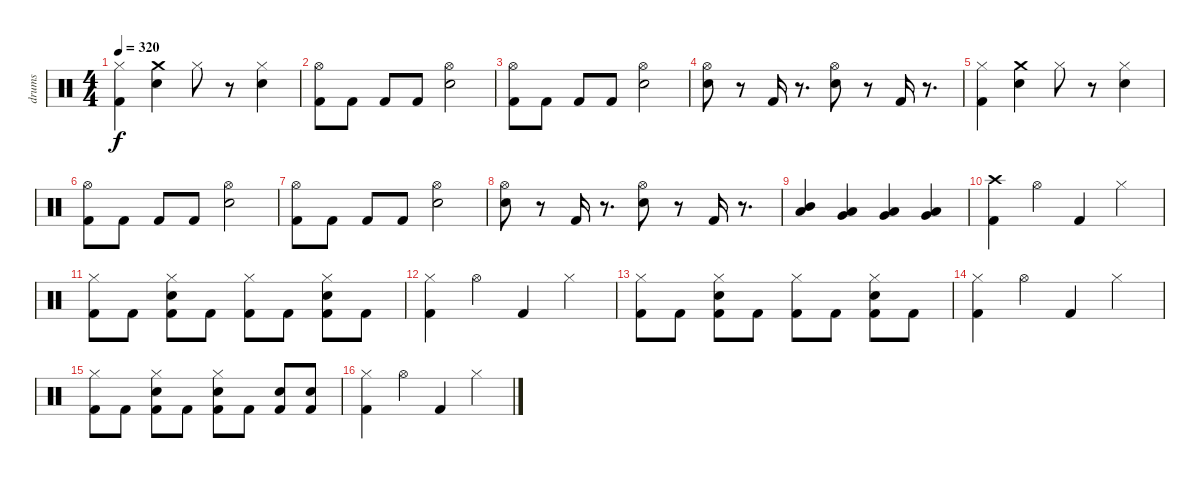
\track ("drums" "drums") {instrument percussion}
\staff {score}
\articulation defaults
\ts (4 4)
\tempo 320
\clef neutral
\ks c
("Hi-Hat (closed)" "Kick (hit) 2").4{dy f} ("Snare (hit) 2" "Crash medium (hit)").4 "Hi-Hat (closed)".8 r.8 ("Hi-Hat (closed)" "Snare (hit) 2").4 |
("Hi-Hat (open)" "Kick (hit) 2").8 "Kick (hit) 2".8 "Kick (hit) 2".8 "Kick (hit) 2".8 ("Hi-Hat (open)" "Snare (hit) 2").2 |
("Hi-Hat (open)" "Kick (hit) 2").8 "Kick (hit) 2".8 "Kick (hit) 2".8 "Kick (hit) 2".8 ("Hi-Hat (open)" "Snare (hit) 2").2 |
("Hi-Hat (open)" "Snare (hit) 2").8 r.8 "Kick (hit) 2".16 r.8{d} ("Hi-Hat (open)" "Snare (hit) 2").8 r.8 "Kick (hit) 2".16 r.8{d} |
("Hi-Hat (closed)" "Kick (hit) 2").4 ("Snare (hit) 2" "Crash medium (hit)").4 "Hi-Hat (closed)".8 r.8 ("Hi-Hat (closed)" "Snare (hit) 2").4 |
("Hi-Hat (open)" "Kick (hit) 2").8 "Kick (hit) 2".8 "Kick (hit) 2".8 "Kick (hit) 2".8 ("Hi-Hat (open)" "Snare (hit) 2").2 |
("Hi-Hat (open)" "Kick (hit) 2").8 "Kick (hit) 2".8 "Kick (hit) 2".8 "Kick (hit) 2".8 ("Hi-Hat (open)" "Snare (hit) 2").2 |
("Hi-Hat (open)" "Snare (hit) 2").8 r.8 "Kick (hit) 2".16 r.8{d} ("Hi-Hat (open)" "Snare (hit) 2").8 r.8 "Kick (hit) 2".16 r.8{d} |
("Mid Tom (hit)" "Low Tom (hit)").4 ("Low Tom (hit)" "Very Low Tom (hit)").4 ("Very Low Tom (hit)" "Low Floor Tom (hit)").4 ("Very Low Tom (hit)" "Low Floor Tom (hit)").4 |
("Crash high (hit)" "Kick (hit) 2").4 "Hi-Hat (open)".4 "Kick (hit) 2".4 "Hi-Hat (closed)".4 |
("Hi-Hat (closed)" "Kick (hit) 2").8 "Kick (hit) 2".8 ("Hi-Hat (closed)" "Kick (hit) 2" "Snare (hit) 2").8 "Kick (hit) 2".8 ("Hi-Hat (closed)" "Kick (hit) 2").8 "Kick (hit) 2".8 ("Hi-Hat (closed)" "Kick (hit) 2" "Snare (hit) 2").8 "Kick (hit) 2".8 |
("Hi-Hat (closed)" "Kick (hit) 2").4 "Hi-Hat (open)".4 "Kick (hit) 2".4 "Hi-Hat (closed)".4 |
("Hi-Hat (closed)" "Kick (hit) 2").8 "Kick (hit) 2".8 ("Hi-Hat (closed)" "Kick (hit) 2" "Snare (hit) 2").8 "Kick (hit) 2".8 ("Hi-Hat (closed)" "Kick (hit) 2").8 "Kick (hit) 2".8 ("Hi-Hat (closed)" "Kick (hit) 2" "Snare (hit) 2").8 "Kick (hit) 2".8 |
("Hi-Hat (closed)" "Kick (hit) 2").4 "Hi-Hat (open)".4 "Kick (hit) 2".4 "Hi-Hat (closed)".4 |
("Hi-Hat (closed)" "Kick (hit) 2").8 "Kick (hit) 2".8 ("Hi-Hat (closed)" "Kick (hit) 2" "Snare (hit) 2").8 "Kick (hit) 2".8 ("Hi-Hat (closed)" "Kick (hit) 2" "Snare (hit) 2").8 "Kick (hit) 2".8 ("Kick (hit) 2" "Snare (hit) 2").8 ("Kick (hit) 2" "Snare (hit) 2").8 |
("Hi-Hat (closed)" "Kick (hit) 2").4 "Hi-Hat (open)".4 "Kick (hit) 2".4 "Hi-Hat (closed)".4
